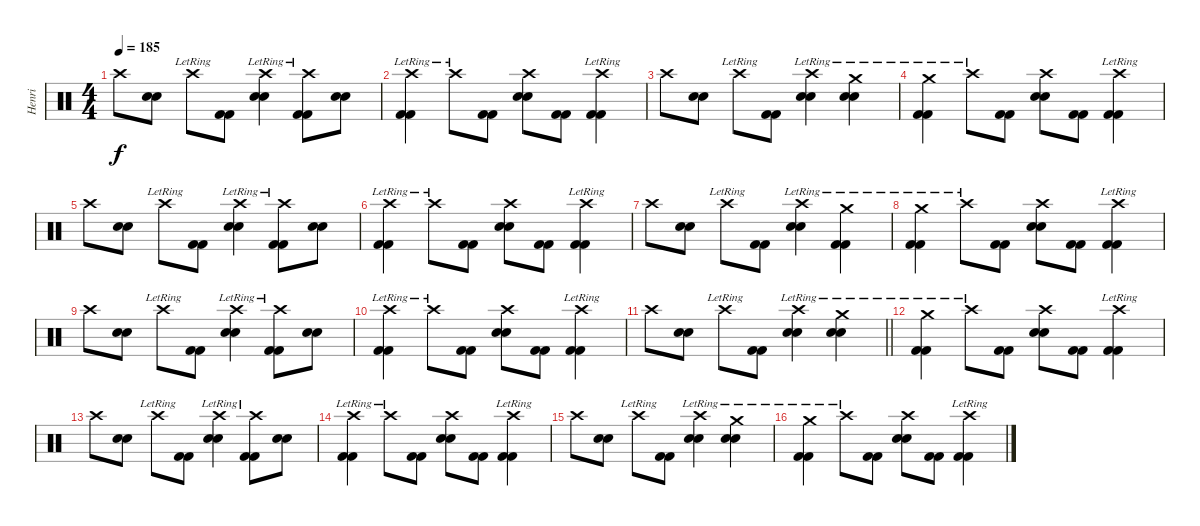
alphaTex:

\track ("Henri" "Henri") {instrument percussion}
\staff {score}
\articulation defaults
\ts (4 4)
\tempo 185
\clef neutral
\ks c "Crash high (hit)".8{dy f}
("Snare (hit) 2" "Snare (hit) 2").8 "Crash high (hit)"{lr}.8 ("Kick (hit) 2" "Kick (hit) 2").8 ("Crash high (hit)"{lr} "Snare (hit) 2" "Snare (hit) 2").4 ("Crash high (hit)"{lr} "Kick (hit) 2" "Kick (hit) 2").8 ("Snare (hit) 2" "Snare (hit) 2").8 |
("Crash high (hit)"{lr} "Kick (hit) 2" "Kick (hit) 2").4 "Crash high (hit)"{lr}.8 ("Kick (hit) 2" "Kick (hit) 2").8 ("Crash high (hit)" "Snare (hit) 2" "Snare (hit) 2").8 ("Kick (hit) 2" "Kick (hit) 2").8 ("Crash high (hit)"{lr} "Kick (hit) 2" "Kick (hit) 2").4 |
"Crash high (hit)".8 ("Snare (hit) 2" "Snare (hit) 2").8 "Crash high (hit)"{lr}.8 ("Kick (hit) 2" "Kick (hit) 2").8 ("Crash high (hit)"{lr} "Snare (hit) 2" "Snare (hit) 2").4 ("Crash medium (hit)"{lr} "Snare (hit) 2" "Snare (hit) 2").4 |
("Crash medium (hit)"{lr} "Kick (hit) 2" "Kick (hit) 2").4 "Crash high (hit)"{lr}.8 ("Kick (hit) 2" "Kick (hit) 2").8 ("Crash high (hit)" "Snare (hit) 2" "Snare (hit) 2").8 ("Kick (hit) 2" "Kick (hit) 2").8 ("Crash high (hit)"{lr} "Kick (hit) 2" "Kick (hit) 2").4 |
"Crash high (hit)".8 ("Snare (hit) 2" "Snare (hit) 2").8 "Crash high (hit)"{lr}.8 ("Kick (hit) 2" "Kick (hit) 2").8 ("Crash high (hit)"{lr} "Snare (hit) 2" "Snare (hit) 2").4 ("Crash high (hit)"{lr} "Kick (hit) 2" "Kick (hit) 2").8 ("Snare (hit) 2" "Snare (hit) 2").8 |
("Crash high (hit)"{lr} "Kick (hit) 2" "Kick (hit) 2").4 "Crash high (hit)"{lr}.8 ("Kick (hit) 2" "Kick (hit) 2").8 ("Crash high (hit)" "Snare (hit) 2" "Snare (hit) 2").8 ("Kick (hit) 2" "Kick (hit) 2").8 ("Crash high (hit)"{lr} "Kick (hit) 2" "Kick (hit) 2").4 |
"Crash high (hit)".8 ("Snare (hit) 2" "Snare (hit) 2").8 "Crash high (hit)"{lr}.8 ("Kick (hit) 2" "Kick (hit) 2").8 ("Crash high (hit)"{lr} "Snare (hit) 2" "Snare (hit) 2").4 ("Crash medium (hit)"{lr} "Kick (hit) 2" "Kick (hit) 2").4 |
("Crash medium (hit)"{lr} "Kick (hit) 2" "Kick (hit) 2").4 "Crash high (hit)"{lr}.8 ("Kick (hit) 2" "Kick (hit) 2").8 ("Crash high (hit)" "Snare (hit) 2" "Snare (hit) 2").8 ("Kick (hit) 2" "Kick (hit) 2").8 ("Crash high (hit)"{lr} "Kick (hit) 2" "Kick (hit) 2").4 |
"Crash high (hit)".8 ("Snare (hit) 2" "Snare (hit) 2").8 "Crash high (hit)"{lr}.8 ("Kick (hit) 2" "Kick (hit) 2").8 ("Crash high (hit)"{lr} "Snare (hit) 2" "Snare (hit) 2").4 ("Crash high (hit)"{lr} "Kick (hit) 2" "Kick (hit) 2").8 ("Snare (hit) 2" "Snare (hit) 2").8 |
("Crash high (hit)"{lr} "Kick (hit) 2" "Kick (hit) 2").4 "Crash high (hit)"{lr}.8 ("Kick (hit) 2" "Kick (hit) 2").8 ("Crash high (hit)" "Snare (hit) 2" "Snare (hit) 2").8 ("Kick (hit) 2" "Kick (hit) 2").8 ("Crash high (hit)"{lr} "Kick (hit) 2" "Kick (hit) 2").4 |
\barLineRight lightlight "Crash high (hit)".8
("Snare (hit) 2" "Snare (hit) 2").8 "Crash high (hit)"{lr}.8 ("Kick (hit) 2" "Kick (hit) 2").8 ("Crash high (hit)"{lr} "Snare (hit) 2" "Snare (hit) 2").4 ("Crash medium (hit)"{lr} "Snare (hit) 2" "Snare (hit) 2").4 |
("Crash medium (hit)"{lr} "Kick (hit) 2" "Kick (hit) 2").4 "Crash high (hit)"{lr}.8 ("Kick (hit) 2" "Kick (hit) 2").8 ("Crash high (hit)" "Snare (hit) 2" "Snare (hit) 2").8 ("Kick (hit) 2" "Kick (hit) 2").8 ("Crash high (hit)"{lr} "Kick (hit) 2" "Kick (hit) 2").4 |
"Crash high (hit)".8 ("Snare (hit) 2" "Snare (hit) 2").8 "Crash high (hit)"{lr}.8 ("Kick (hit) 2" "Kick (hit) 2").8 ("Crash high (hit)"{lr} "Snare (hit) 2" "Snare (hit) 2").4 ("Crash high (hit)"{lr} "Kick (hit) 2" "Kick (hit) 2").8 ("Snare (hit) 2" "Snare (hit) 2").8 |
("Crash high (hit)"{lr} "Kick (hit) 2" "Kick (hit) 2").4 "Crash high (hit)"{lr}.8 ("Kick (hit) 2" "Kick (hit) 2").8 ("Crash high (hit)" "Snare (hit) 2" "Snare (hit) 2").8 ("Kick (hit) 2" "Kick (hit) 2").8 ("Crash high (hit)"{lr} "Kick (hit) 2" "Kick (hit) 2").4 |
"Crash high (hit)".8 ("Snare (hit) 2" "Snare (hit) 2").8 "Crash high (hit)"{lr}.8 ("Kick (hit) 2" "Kick (hit) 2").8 ("Crash high (hit)"{lr} "Snare (hit) 2" "Snare (hit) 2").4 ("Crash medium (hit)"{lr} "Snare (hit) 2" "Snare (hit) 2").4 |
("Crash medium (hit)"{lr} "Kick (hit) 2" "Kick (hit) 2").4 "Crash high (hit)"{lr}.8 ("Kick (hit) 2" "Kick (hit) 2").8 ("Crash high (hit)" "Snare (hit) 2" "Snare (hit) 2").8 ("Kick (hit) 2" "Kick (hit) 2").8 ("Crash high (hit)"{lr} "Kick (hit) 2" "Kick (hit) 2").4
